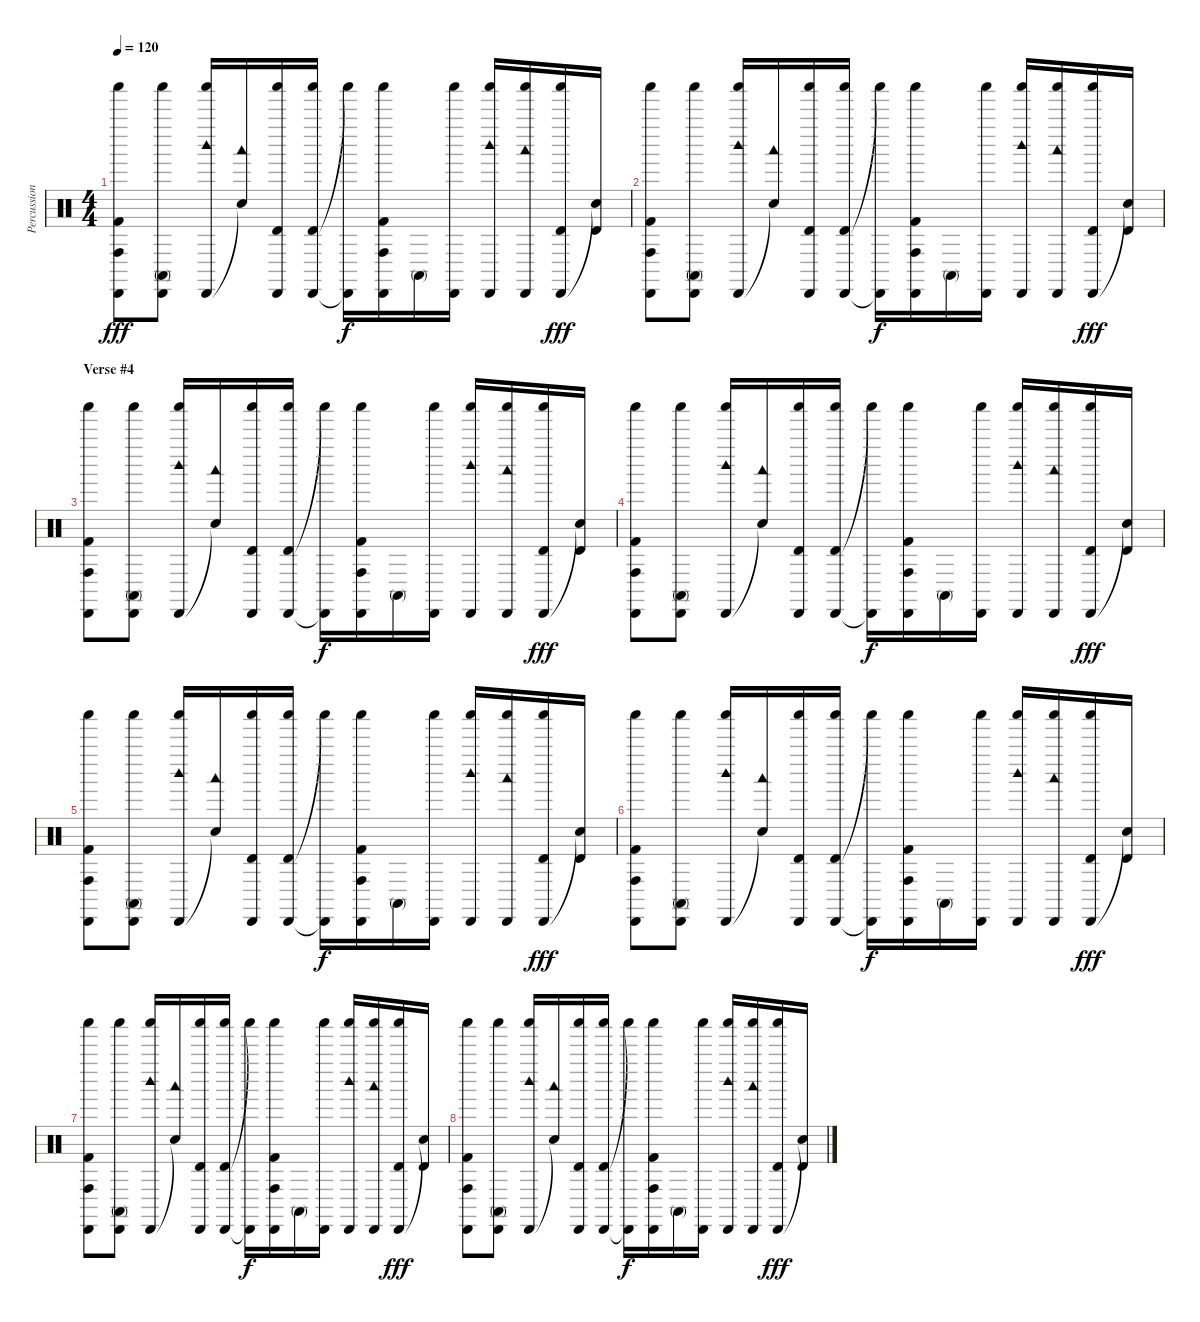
\track ("Percussion" "Percussion") {instrument percussion}
\staff {score}
\articulation defaults
\ts (4 4)
\tempo 120
\clef neutral
\ks c
("Cabasa (hit)" "Conga high (hit)" "Kick (hit) 2" "Shaker (hit)").8{dy fff} ("Cabasa (hit)" "Conga high (mute)" "Shaker (hit)").8 ("Cabasa (hit)" "Woodblock high (hit)" "Shaker (hit)").16 ("Snare (hit)"{t} "Woodblock low (hit)").16 ("Cabasa (hit)" "Timbale high (hit)" "Shaker (hit)").16 ("Cabasa (hit)" "Timbale high (hit)" "Shaker (hit)").16 ("Cabasa (hit)"{t} "Shaker (hit)"{t}).16{dy f} ("Cabasa (hit)" "Conga high (hit)" "Kick (hit) 2" "Shaker (hit)").16 "Conga high (mute)".16 ("Cabasa (hit)" "Shaker (hit)").16 ("Cabasa (hit)" "Woodblock high (hit)" "Shaker (hit)").16 ("Cabasa (hit)" "Woodblock low (hit)" "Shaker (hit)").16 ("Cabasa (hit)" "Timbale high (hit)" "Shaker (hit)").16{dy fff} ("Snare (hit)"{t} "Timbale high (hit)").16 |
("Cabasa (hit)" "Conga high (hit)" "Kick (hit) 2" "Shaker (hit)").8 ("Cabasa (hit)" "Conga high (mute)" "Shaker (hit)").8 ("Cabasa (hit)" "Woodblock high (hit)" "Shaker (hit)").16 ("Snare (hit)"{t} "Woodblock low (hit)").16 ("Cabasa (hit)" "Timbale high (hit)" "Shaker (hit)").16 ("Cabasa (hit)" "Timbale high (hit)" "Shaker (hit)").16 ("Cabasa (hit)"{t} "Shaker (hit)"{t}).16{dy f} ("Cabasa (hit)" "Conga high (hit)" "Kick (hit) 2" "Shaker (hit)").16 "Conga high (mute)".16 ("Cabasa (hit)" "Shaker (hit)").16 ("Cabasa (hit)" "Woodblock high (hit)" "Shaker (hit)").16 ("Cabasa (hit)" "Woodblock low (hit)" "Shaker (hit)").16 ("Cabasa (hit)" "Timbale high (hit)" "Shaker (hit)").16{dy fff} ("Snare (hit)"{t} "Timbale high (hit)").16 |
\section ("" "Verse #4")
("Cabasa (hit)" "Conga high (hit)" "Kick (hit) 2" "Shaker (hit)").8 ("Cabasa (hit)" "Conga high (mute)" "Shaker (hit)").8 ("Cabasa (hit)" "Woodblock high (hit)" "Shaker (hit)").16 ("Snare (hit)"{t} "Woodblock low (hit)").16 ("Cabasa (hit)" "Timbale high (hit)" "Shaker (hit)").16 ("Cabasa (hit)" "Timbale high (hit)" "Shaker (hit)").16 ("Cabasa (hit)"{t} "Shaker (hit)"{t}).16{dy f} ("Cabasa (hit)" "Conga high (hit)" "Kick (hit) 2" "Shaker (hit)").16 "Conga high (mute)".16 ("Cabasa (hit)" "Shaker (hit)").16 ("Cabasa (hit)" "Woodblock high (hit)" "Shaker (hit)").16 ("Cabasa (hit)" "Woodblock low (hit)" "Shaker (hit)").16 ("Cabasa (hit)" "Timbale high (hit)" "Shaker (hit)").16{dy fff} ("Snare (hit)"{t} "Timbale high (hit)").16 |
("Cabasa (hit)" "Conga high (hit)" "Kick (hit) 2" "Shaker (hit)").8 ("Cabasa (hit)" "Conga high (mute)" "Shaker (hit)").8 ("Cabasa (hit)" "Woodblock high (hit)" "Shaker (hit)").16 ("Snare (hit)"{t} "Woodblock low (hit)").16 ("Cabasa (hit)" "Timbale high (hit)" "Shaker (hit)").16 ("Cabasa (hit)" "Timbale high (hit)" "Shaker (hit)").16 ("Cabasa (hit)"{t} "Shaker (hit)"{t}).16{dy f} ("Cabasa (hit)" "Conga high (hit)" "Kick (hit) 2" "Shaker (hit)").16 "Conga high (mute)".16 ("Cabasa (hit)" "Shaker (hit)").16 ("Cabasa (hit)" "Woodblock high (hit)" "Shaker (hit)").16 ("Cabasa (hit)" "Woodblock low (hit)" "Shaker (hit)").16 ("Cabasa (hit)" "Timbale high (hit)" "Shaker (hit)").16{dy fff} ("Snare (hit)"{t} "Timbale high (hit)").16 |
("Cabasa (hit)" "Conga high (hit)" "Kick (hit) 2" "Shaker (hit)").8 ("Cabasa (hit)" "Conga high (mute)" "Shaker (hit)").8 ("Cabasa (hit)" "Woodblock high (hit)" "Shaker (hit)").16 ("Snare (hit)"{t} "Woodblock low (hit)").16 ("Cabasa (hit)" "Timbale high (hit)" "Shaker (hit)").16 ("Cabasa (hit)" "Timbale high (hit)" "Shaker (hit)").16 ("Cabasa (hit)"{t} "Shaker (hit)"{t}).16{dy f} ("Cabasa (hit)" "Conga high (hit)" "Kick (hit) 2" "Shaker (hit)").16 "Conga high (mute)".16 ("Cabasa (hit)" "Shaker (hit)").16 ("Cabasa (hit)" "Woodblock high (hit)" "Shaker (hit)").16 ("Cabasa (hit)" "Woodblock low (hit)" "Shaker (hit)").16 ("Cabasa (hit)" "Timbale high (hit)" "Shaker (hit)").16{dy fff} ("Snare (hit)"{t} "Timbale high (hit)").16 |
("Cabasa (hit)" "Conga high (hit)" "Kick (hit) 2" "Shaker (hit)").8 ("Cabasa (hit)" "Conga high (mute)" "Shaker (hit)").8 ("Cabasa (hit)" "Woodblock high (hit)" "Shaker (hit)").16 ("Snare (hit)"{t} "Woodblock low (hit)").16 ("Cabasa (hit)" "Timbale high (hit)" "Shaker (hit)").16 ("Cabasa (hit)" "Timbale high (hit)" "Shaker (hit)").16 ("Cabasa (hit)"{t} "Shaker (hit)"{t}).16{dy f} ("Cabasa (hit)" "Conga high (hit)" "Kick (hit) 2" "Shaker (hit)").16 "Conga high (mute)".16 ("Cabasa (hit)" "Shaker (hit)").16 ("Cabasa (hit)" "Woodblock high (hit)" "Shaker (hit)").16 ("Cabasa (hit)" "Woodblock low (hit)" "Shaker (hit)").16 ("Cabasa (hit)" "Timbale high (hit)" "Shaker (hit)").16{dy fff} ("Snare (hit)"{t} "Timbale high (hit)").16 |
("Cabasa (hit)" "Conga high (hit)" "Kick (hit) 2" "Shaker (hit)").8 ("Cabasa (hit)" "Conga high (mute)" "Shaker (hit)").8 ("Cabasa (hit)" "Woodblock high (hit)" "Shaker (hit)").16 ("Snare (hit)"{t} "Woodblock low (hit)").16 ("Cabasa (hit)" "Timbale high (hit)" "Shaker (hit)").16 ("Cabasa (hit)" "Timbale high (hit)" "Shaker (hit)").16 ("Cabasa (hit)"{t} "Shaker (hit)"{t}).16{dy f} ("Cabasa (hit)" "Conga high (hit)" "Kick (hit) 2" "Shaker (hit)").16 "Conga high (mute)".16 ("Cabasa (hit)" "Shaker (hit)").16 ("Cabasa (hit)" "Woodblock high (hit)" "Shaker (hit)").16 ("Cabasa (hit)" "Woodblock low (hit)" "Shaker (hit)").16 ("Cabasa (hit)" "Timbale high (hit)" "Shaker (hit)").16{dy fff} ("Snare (hit)"{t} "Timbale high (hit)").16 |
("Cabasa (hit)" "Conga high (hit)" "Kick (hit) 2" "Shaker (hit)").8 ("Cabasa (hit)" "Conga high (mute)" "Shaker (hit)").8 ("Cabasa (hit)" "Woodblock high (hit)" "Shaker (hit)").16 ("Snare (hit)"{t} "Woodblock low (hit)").16 ("Cabasa (hit)" "Timbale high (hit)" "Shaker (hit)").16 ("Cabasa (hit)" "Timbale high (hit)" "Shaker (hit)").16 ("Cabasa (hit)"{t} "Shaker (hit)"{t}).16{dy f} ("Cabasa (hit)" "Conga high (hit)" "Kick (hit) 2" "Shaker (hit)").16 "Conga high (mute)".16 ("Cabasa (hit)" "Shaker (hit)").16 ("Cabasa (hit)" "Woodblock high (hit)" "Shaker (hit)").16 ("Cabasa (hit)" "Woodblock low (hit)" "Shaker (hit)").16 ("Cabasa (hit)" "Timbale high (hit)" "Shaker (hit)").16{dy fff} ("Snare (hit)"{t} "Timbale high (hit)").16
